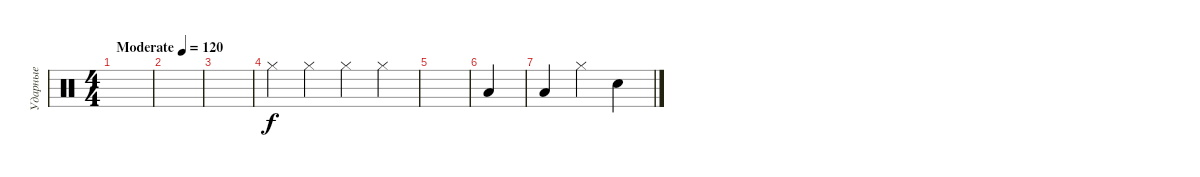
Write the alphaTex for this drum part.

\track ("Ударные" "Ударные") {instrument percussion}
\staff {score}
\articulation defaults
\ts (4 4)
\tempo (120 "Moderate")
\clef neutral
\ks c
|
|
|
"Hi-Hat (closed)".4 "Hi-Hat (closed)".4 "Hi-Hat (closed)".4 "Hi-Hat (closed)".4 |
|
"Low Floor Tom (hit)".4 |
"Low Floor Tom (hit)".4 "Hi-Hat (closed)".4 "Electric Snare (hit)".4
